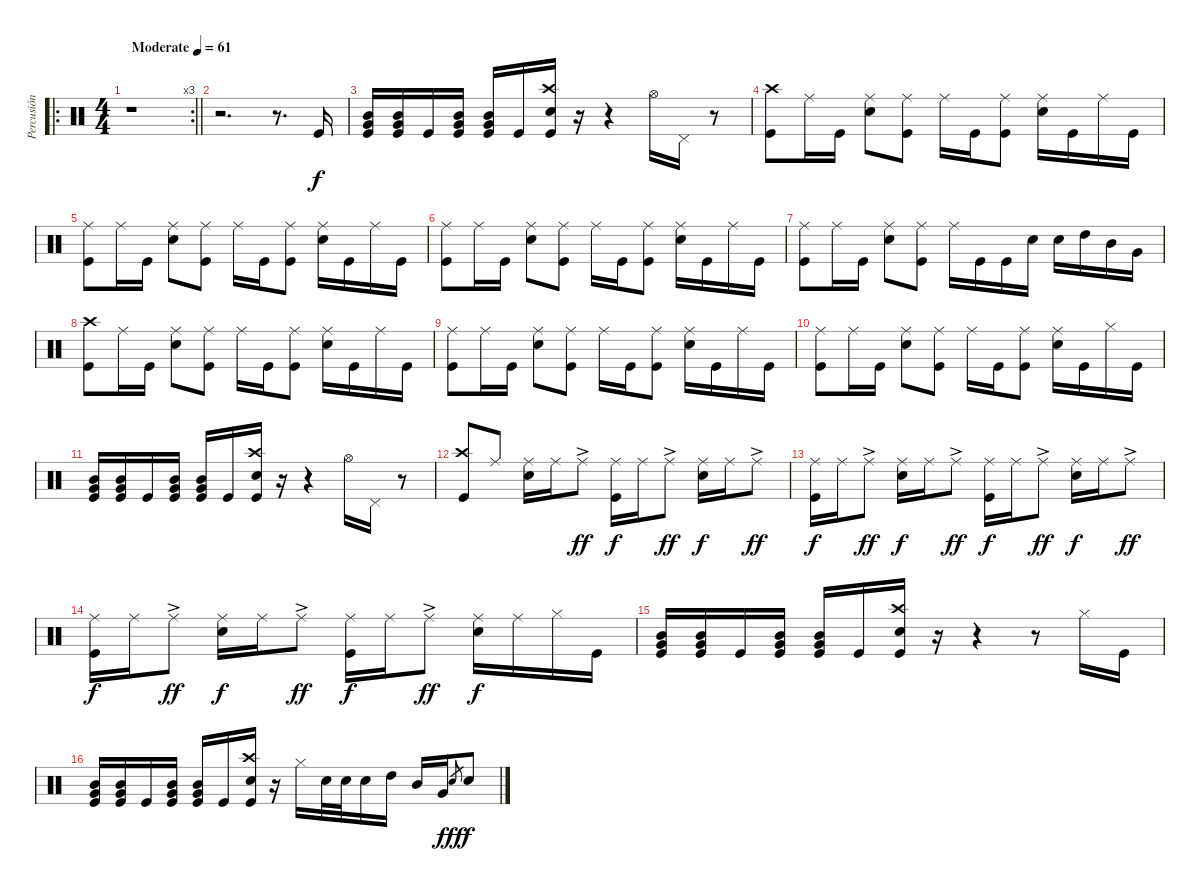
\track ("Percusión" "Percusión") {instrument percussion}
\staff {score}
\articulation defaults
\ro
\rc 3
\ts (4 4)
\tempo (61 "Moderate")
\clef neutral
\barLineRight lightlight
\ks c
r.1{dy f} |
r.2{d} r.8{d} "Kick (hit)".16 |
("Kick (hit)" "Very Low Tom (hit)" "Mid Tom (hit)").16 ("Kick (hit)" "Very Low Tom (hit)" "Mid Tom (hit)").16 "Kick (hit)".16 ("Kick (hit)" "Very Low Tom (hit)" "Mid Tom (hit)").16 ("Very Low Tom (hit)" "Kick (hit)" "Mid Tom (hit)").16{beam Up} "Kick (hit)".16{beam Up} ("Kick (hit)" "Crash high (hit)" "Snare (hit) 2").16{beam Up} r.16 r.4 "Hi-Hat (open)".16 "Pedal Hi-Hat (hit)".16 r.8 |
("Crash high (hit)" "Kick (hit)").8 "Ride (middle)".16 "Kick (hit)".16 ("Ride (middle)" "Snare (hit) 2").8 ("Ride (middle)" "Kick (hit)").8 "Ride (middle)".16 "Kick (hit)".16 ("Ride (middle)" "Kick (hit)").8 ("Ride (middle)" "Snare (hit) 2").16 "Kick (hit)".16 "Ride (middle)".16 "Kick (hit)".16 |
("Ride (middle)" "Kick (hit)").8 "Ride (middle)".16 "Kick (hit)".16 ("Ride (middle)" "Snare (hit) 2").8 ("Ride (middle)" "Kick (hit)").8 "Ride (middle)".16 "Kick (hit)".16 ("Ride (middle)" "Kick (hit)").8 ("Ride (middle)" "Snare (hit) 2").16 "Kick (hit)".16 "Ride (middle)".16 "Kick (hit)".16 |
("Ride (middle)" "Kick (hit)").8 "Ride (middle)".16 "Kick (hit)".16 ("Ride (middle)" "Snare (hit) 2").8 ("Ride (middle)" "Kick (hit)").8 "Ride (middle)".16 "Kick (hit)".16 ("Ride (middle)" "Kick (hit)").8 ("Ride (middle)" "Snare (hit) 2").16 "Kick (hit)".16 "Ride (middle)".16 "Kick (hit)".16 |
("Ride (middle)" "Kick (hit)").8 "Ride (middle)".16 "Kick (hit)".16 ("Ride (middle)" "Snare (hit) 2").8 ("Ride (middle)" "Kick (hit)").8 "Ride (middle)".16 "Kick (hit)".16 "Kick (hit)".16 "Snare (hit) 2".16 "Snare (hit) 2".16 "High Tom (hit)".16 "Mid Tom (hit)".16 "Very Low Tom (hit)".16 |
("Crash high (hit)" "Kick (hit)").8 "Ride (middle)".16 "Kick (hit)".16 ("Ride (middle)" "Snare (hit) 2").8 ("Ride (middle)" "Kick (hit)").8 "Ride (middle)".16 "Kick (hit)".16 ("Ride (middle)" "Kick (hit)").8 ("Ride (middle)" "Snare (hit) 2").16 "Kick (hit)".16 "Ride (middle)".16 "Kick (hit)".16 |
("Ride (middle)" "Kick (hit)").8 "Ride (middle)".16 "Kick (hit)".16 ("Ride (middle)" "Snare (hit) 2").8 ("Ride (middle)" "Kick (hit)").8 "Ride (middle)".16 "Kick (hit)".16 ("Ride (middle)" "Kick (hit)").8 ("Ride (middle)" "Snare (hit) 2").16 "Kick (hit)".16 "Ride (middle)".16 "Kick (hit)".16 |
("Ride (middle)" "Kick (hit)").8 "Ride (middle)".16 "Kick (hit)".16 ("Ride (middle)" "Snare (hit) 2").8 ("Ride (middle)" "Kick (hit)").8 "Ride (middle)".16 "Kick (hit)".16 ("Ride (middle)" "Kick (hit)").8 ("Ride (middle)" "Snare (hit) 2").16 "Kick (hit)".16 "Hi-Hat (closed)".16 "Kick (hit)".16 |
("Kick (hit)" "Very Low Tom (hit)" "Mid Tom (hit)").16 ("Kick (hit)" "Very Low Tom (hit)" "Mid Tom (hit)").16 "Kick (hit)".16 ("Kick (hit)" "Very Low Tom (hit)" "Mid Tom (hit)").16 ("Very Low Tom (hit)" "Kick (hit)" "Mid Tom (hit)").16{beam Up} "Kick (hit)".16{beam Up} ("Kick (hit)" "Crash high (hit)" "Snare (hit) 2").16{beam Up} r.16 r.4 "Hi-Hat (open)".16 "Pedal Hi-Hat (hit)".16 r.8 |
("Crash high (hit)" "Kick (hit)").8{beam Up} "Ride (middle)".8{beam Up} ("Ride (middle)" "Snare (hit) 2").16{beam Down} "Ride (middle)".16{beam Down} "Ride (middle)"{ac}.8{dy ff beam Down} ("Kick (hit)" "Ride (middle)").16{dy f beam Down} "Ride (middle)".16{beam Down} "Ride (middle)"{ac}.8{dy ff beam Down} ("Ride (middle)" "Snare (hit) 2").16{dy f beam Down} "Ride (middle)".16{beam Down} "Ride (middle)"{ac}.8{dy ff beam Down} |
("Ride (middle)" "Kick (hit)").16{dy f beam Down} "Ride (middle)".16{beam Down} "Ride (middle)"{ac}.8{dy ff beam Down} ("Ride (middle)" "Snare (hit) 2").16{dy f beam Down} "Ride (middle)".16{beam Down} "Ride (middle)"{ac}.8{dy ff beam Down} ("Kick (hit)" "Ride (middle)").16{dy f beam Down} "Ride (middle)".16{beam Down} "Ride (middle)"{ac}.8{dy ff beam Down} ("Ride (middle)" "Snare (hit) 2").16{dy f beam Down} "Ride (middle)".16{beam Down} "Ride (middle)"{ac}.8{dy ff beam Down} |
("Ride (middle)" "Kick (hit)").16{dy f beam Down} "Ride (middle)".16{beam Down} "Ride (middle)"{ac}.8{dy ff beam Down} ("Ride (middle)" "Snare (hit) 2").16{dy f beam Down} "Ride (middle)".16{beam Down} "Ride (middle)"{ac}.8{dy ff beam Down} ("Kick (hit)" "Ride (middle)").16{dy f beam Down} "Ride (middle)".16{beam Down} "Ride (middle)"{ac}.8{dy ff beam Down} ("Ride (middle)" "Snare (hit) 2").16{dy f beam Down} "Ride (middle)".16{beam Down} "Hi-Hat (closed)".16{beam Down} "Kick (hit)".16{beam Down} |
("Kick (hit)" "Very Low Tom (hit)" "Mid Tom (hit)").16 ("Kick (hit)" "Very Low Tom (hit)" "Mid Tom (hit)").16 "Kick (hit)".16 ("Kick (hit)" "Very Low Tom (hit)" "Mid Tom (hit)").16 ("Very Low Tom (hit)" "Kick (hit)" "Mid Tom (hit)").16{beam Up} "Kick (hit)".16{beam Up} ("Kick (hit)" "Crash high (hit)" "Snare (hit) 2").16{beam Up} r.16 r.4 r.8 "Hi-Hat (closed)".16 "Kick (hit)".16 |
("Kick (hit)" "Very Low Tom (hit)" "Mid Tom (hit)").16 ("Kick (hit)" "Very Low Tom (hit)" "Mid Tom (hit)").16 "Kick (hit)".16 ("Kick (hit)" "Very Low Tom (hit)" "Mid Tom (hit)").16 ("Very Low Tom (hit)" "Kick (hit)" "Mid Tom (hit)").16{beam Up} "Kick (hit)".16{beam Up} ("Kick (hit)" "Crash high (hit)" "Snare (hit) 2").16{beam Up} r.16 "Hi-Hat (closed)".16 "Snare (hit) 2".32 "Snare (hit) 2".32 "Snare (hit) 2".16 "High Tom (hit)".16 "Mid Tom (hit)".16 "Very Low Tom (hit)".16 "Snare (hit) 2".8{gr dy fff} "Snare (hit) 2".8{dy f}
